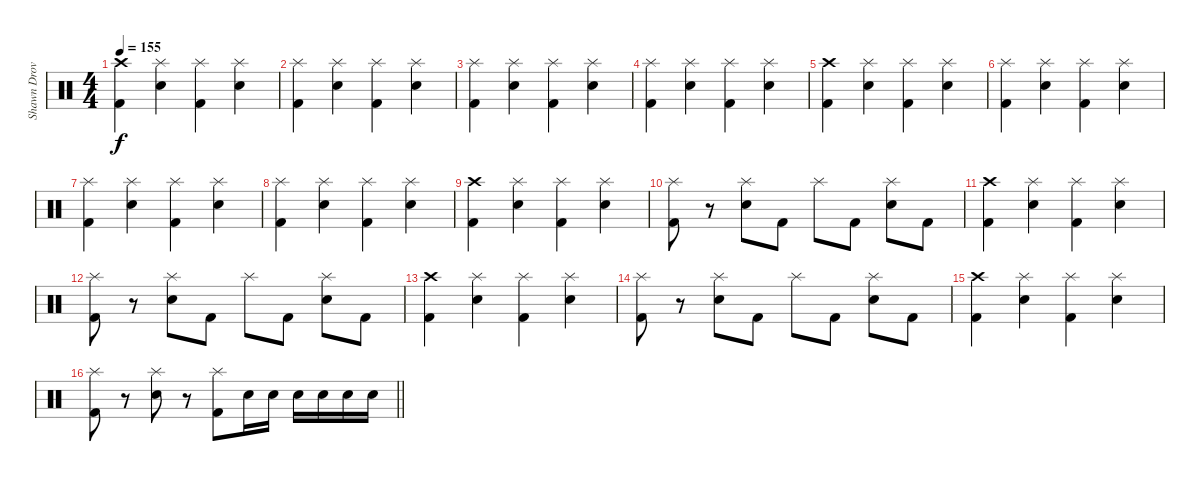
\track ("Shawn Drover" "Shawn Drov") {instrument percussion}
\staff {score}
\articulation defaults
\ts (4 4)
\tempo 155
\clef neutral
\ks c
("Crash high (hit)" "Kick (hit) 2").4{dy f} ("Splash (hit)" "Snare (hit) 2").4 ("Splash (hit)" "Kick (hit) 2").4 ("Splash (hit)" "Snare (hit) 2").4 |
("Splash (hit)" "Kick (hit) 2").4 ("Splash (hit)" "Snare (hit) 2").4 ("Splash (hit)" "Kick (hit) 2").4 ("Splash (hit)" "Snare (hit) 2").4 |
("Splash (hit)" "Kick (hit) 2").4 ("Splash (hit)" "Snare (hit) 2").4 ("Splash (hit)" "Kick (hit) 2").4 ("Splash (hit)" "Snare (hit) 2").4 |
("Splash (hit)" "Kick (hit) 2").4 ("Splash (hit)" "Snare (hit) 2").4 ("Splash (hit)" "Kick (hit) 2").4 ("Splash (hit)" "Snare (hit) 2").4 |
("Crash high (hit)" "Kick (hit) 2").4 ("Splash (hit)" "Snare (hit) 2").4 ("Splash (hit)" "Kick (hit) 2").4 ("Splash (hit)" "Snare (hit) 2").4 |
("Splash (hit)" "Kick (hit) 2").4 ("Splash (hit)" "Snare (hit) 2").4 ("Splash (hit)" "Kick (hit) 2").4 ("Splash (hit)" "Snare (hit) 2").4 |
("Splash (hit)" "Kick (hit) 2").4 ("Splash (hit)" "Snare (hit) 2").4 ("Splash (hit)" "Kick (hit) 2").4 ("Splash (hit)" "Snare (hit) 2").4 |
("Splash (hit)" "Kick (hit) 2").4 ("Splash (hit)" "Snare (hit) 2").4 ("Splash (hit)" "Kick (hit) 2").4 ("Splash (hit)" "Snare (hit) 2").4 |
("Crash high (hit)" "Kick (hit) 2").4 ("Splash (hit)" "Snare (hit) 2").4 ("Splash (hit)" "Kick (hit) 2").4 ("Splash (hit)" "Snare (hit) 2").4 |
("Splash (hit)" "Kick (hit) 2").8 r.8 ("Splash (hit)" "Snare (hit) 2").8 "Kick (hit) 2".8 "Splash (hit)".8 "Kick (hit) 2".8 ("Splash (hit)" "Snare (hit) 2").8 "Kick (hit) 2".8 |
("Crash high (hit)" "Kick (hit) 2").4 ("Splash (hit)" "Snare (hit) 2").4 ("Splash (hit)" "Kick (hit) 2").4 ("Splash (hit)" "Snare (hit) 2").4 |
("Splash (hit)" "Kick (hit) 2").8 r.8 ("Splash (hit)" "Snare (hit) 2").8 "Kick (hit) 2".8 "Splash (hit)".8 "Kick (hit) 2".8 ("Splash (hit)" "Snare (hit) 2").8 "Kick (hit) 2".8 |
("Crash high (hit)" "Kick (hit) 2").4 ("Splash (hit)" "Snare (hit) 2").4 ("Splash (hit)" "Kick (hit) 2").4 ("Splash (hit)" "Snare (hit) 2").4 |
("Splash (hit)" "Kick (hit) 2").8 r.8 ("Splash (hit)" "Snare (hit) 2").8 "Kick (hit) 2".8 "Splash (hit)".8 "Kick (hit) 2".8 ("Splash (hit)" "Snare (hit) 2").8 "Kick (hit) 2".8 |
("Crash high (hit)" "Kick (hit) 2").4 ("Splash (hit)" "Snare (hit) 2").4 ("Splash (hit)" "Kick (hit) 2").4 ("Splash (hit)" "Snare (hit) 2").4 |
\barLineRight lightlight
("Splash (hit)" "Kick (hit) 2").8 r.8 ("Splash (hit)" "Snare (hit) 2").8 r.8 ("Splash (hit)" "Kick (hit) 2").8 "Snare (hit) 2".16 "Snare (hit) 2".16 "Snare (hit) 2".16 "Snare (hit) 2".16 "Snare (hit) 2".16 "Snare (hit) 2".16
